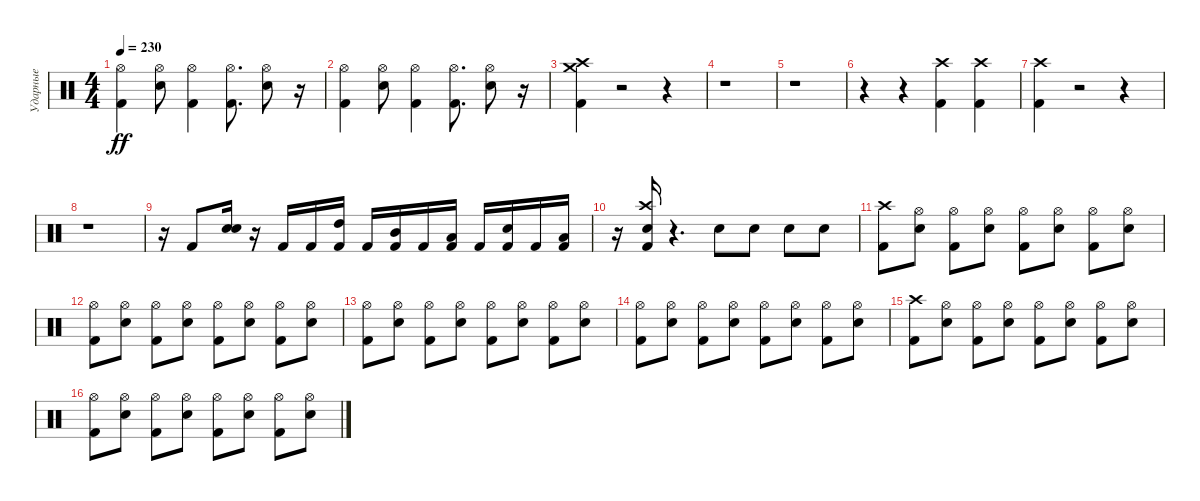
\track ("Ударные" "Ударные") {instrument percussion}
\staff {score}
\articulation defaults
\ts (4 4)
\tempo 230
\clef neutral
\ks c
("Kick (hit) 2" "Hi-Hat (open)").4{dy ff} ("Snare (hit) 2" "Hi-Hat (open)").8 ("Kick (hit) 2" "Hi-Hat (open)").4 ("Kick (hit) 2" "Hi-Hat (open)").8{d} ("Snare (hit) 2" "Hi-Hat (open)").8 r.16 |
("Kick (hit) 2" "Hi-Hat (open)").4 ("Snare (hit) 2" "Hi-Hat (open)").8 ("Kick (hit) 2" "Hi-Hat (open)").4 ("Kick (hit) 2" "Hi-Hat (open)").8{d} ("Snare (hit) 2" "Hi-Hat (open)").8 r.16 |
("Crash medium (hit)" "Crash high (hit)" "Kick (hit) 2").4 r.2 r.4 |
r.1 |
r.1 |
r.4 r.4 ("Crash high (hit)" "Kick (hit) 2").4 ("Crash high (hit)" "Kick (hit) 2").4 |
("Crash high (hit)" "Kick (hit) 2").4 r.2 r.4 |
r.1 |
r.16 "Kick (hit) 2".8 ("Electric Snare (hit)" "Snare (hit) 2").16 r.16 "Kick (hit) 2".16 "Kick (hit) 2".16 ("High Tom (hit)" "Kick (hit) 2").16 "Kick (hit) 2".16 ("Mid Tom (hit)" "Kick (hit) 2").16 "Kick (hit) 2".16 ("Low Tom (hit)" "Kick (hit) 2").16 "Kick (hit) 2".16 ("Electric Snare (hit)" "Kick (hit) 2").16 "Kick (hit) 2".16 ("Low Floor Tom (hit)" "Kick (hit) 2").16 |
r.16 ("Crash high (hit)" "Electric Snare (hit)" "Kick (hit) 2").16 r.4{d} "Electric Snare (hit)".8 "Electric Snare (hit)".8 "Electric Snare (hit)".8 "Electric Snare (hit)".8 |
("Crash high (hit)" "Kick (hit) 2").8 ("Hi-Hat (open)" "Snare (hit) 2").8 ("Hi-Hat (open)" "Kick (hit) 2").8 ("Hi-Hat (open)" "Snare (hit) 2").8 ("Hi-Hat (open)" "Kick (hit) 2").8 ("Hi-Hat (open)" "Snare (hit) 2").8 ("Hi-Hat (open)" "Kick (hit) 2").8 ("Hi-Hat (open)" "Snare (hit) 2").8 |
("Hi-Hat (open)" "Kick (hit) 2").8 ("Hi-Hat (open)" "Snare (hit) 2").8 ("Hi-Hat (open)" "Kick (hit) 2").8 ("Hi-Hat (open)" "Snare (hit) 2").8 ("Hi-Hat (open)" "Kick (hit) 2").8 ("Hi-Hat (open)" "Snare (hit) 2").8 ("Hi-Hat (open)" "Kick (hit) 2").8 ("Hi-Hat (open)" "Snare (hit) 2").8 |
("Hi-Hat (open)" "Kick (hit) 2").8 ("Hi-Hat (open)" "Snare (hit) 2").8 ("Hi-Hat (open)" "Kick (hit) 2").8 ("Hi-Hat (open)" "Snare (hit) 2").8 ("Hi-Hat (open)" "Kick (hit) 2").8 ("Hi-Hat (open)" "Snare (hit) 2").8 ("Hi-Hat (open)" "Kick (hit) 2").8 ("Hi-Hat (open)" "Snare (hit) 2").8 |
("Hi-Hat (open)" "Kick (hit) 2").8 ("Hi-Hat (open)" "Snare (hit) 2").8 ("Hi-Hat (open)" "Kick (hit) 2").8 ("Hi-Hat (open)" "Snare (hit) 2").8 ("Hi-Hat (open)" "Kick (hit) 2").8 ("Hi-Hat (open)" "Snare (hit) 2").8 ("Hi-Hat (open)" "Kick (hit) 2").8 ("Hi-Hat (open)" "Snare (hit) 2").8 |
("Crash high (hit)" "Kick (hit) 2").8 ("Hi-Hat (open)" "Snare (hit) 2").8 ("Hi-Hat (open)" "Kick (hit) 2").8 ("Hi-Hat (open)" "Snare (hit) 2").8 ("Hi-Hat (open)" "Kick (hit) 2").8 ("Hi-Hat (open)" "Snare (hit) 2").8 ("Hi-Hat (open)" "Kick (hit) 2").8 ("Hi-Hat (open)" "Snare (hit) 2").8 |
("Hi-Hat (open)" "Kick (hit) 2").8 ("Hi-Hat (open)" "Snare (hit) 2").8 ("Hi-Hat (open)" "Kick (hit) 2").8 ("Hi-Hat (open)" "Snare (hit) 2").8 ("Hi-Hat (open)" "Kick (hit) 2").8 ("Hi-Hat (open)" "Snare (hit) 2").8 ("Hi-Hat (open)" "Kick (hit) 2").8 ("Hi-Hat (open)" "Snare (hit) 2").8
